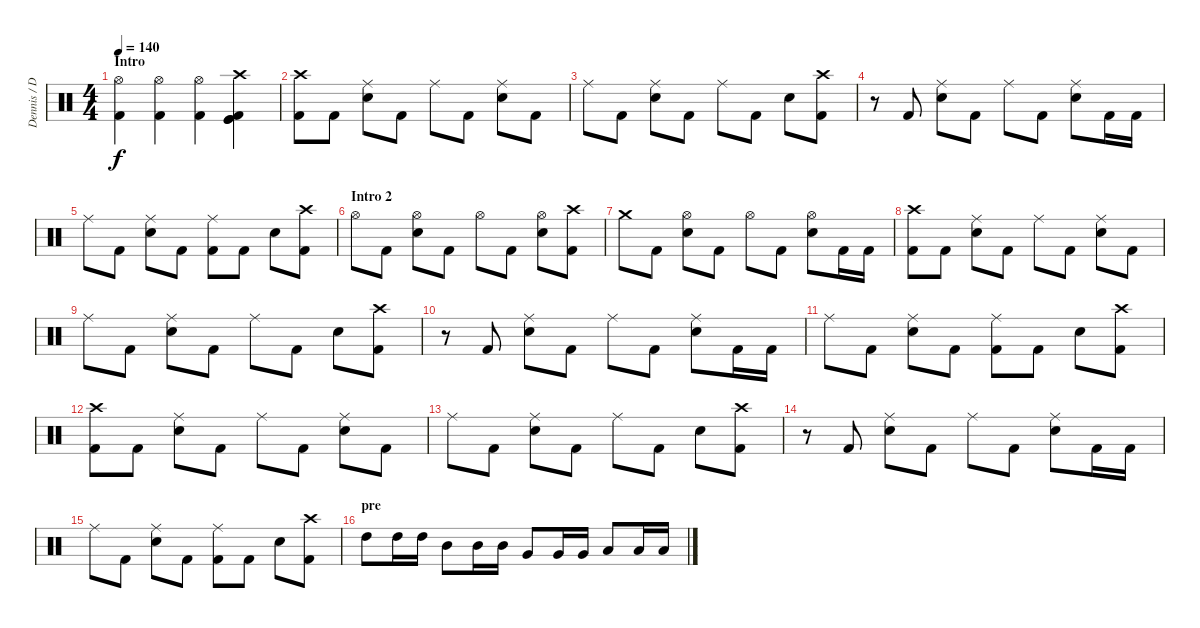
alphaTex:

\track ("Dennis / Drums" "Dennis / D") {instrument percussion}
\staff {score}
\articulation defaults
\ts (4 4)
\section ("" "Intro")
\tempo 140
\clef neutral
\ks c
("Hi-Hat (open)" "Kick (hit) 2").4{dy f} ("Hi-Hat (open)" "Kick (hit) 2").4 ("Hi-Hat (open)" "Kick (hit) 2").4 ("Kick (hit)" "Crash high (hit)" "Kick (hit) 2" "Kick (hit)").4 |
("Crash high (hit)" "Kick (hit) 2").8 "Kick (hit) 2".8 ("Ride (middle)" "Electric Snare (hit)").8 "Kick (hit) 2".8 "Ride (middle)".8 "Kick (hit) 2".8 ("Ride (middle)" "Electric Snare (hit)").8 "Kick (hit) 2".8 |
"Ride (middle)".8 "Kick (hit) 2".8 ("Ride (middle)" "Electric Snare (hit)").8 "Kick (hit) 2".8 "Ride (middle)".8 "Kick (hit) 2".8 "Electric Snare (hit)".8 ("Crash high (hit)" "Kick (hit) 2").8 |
r.8 "Kick (hit) 2".8 ("Ride (middle)" "Electric Snare (hit)").8 "Kick (hit) 2".8 "Ride (middle)".8 "Kick (hit) 2".8 ("Ride (middle)" "Electric Snare (hit)").8 "Kick (hit) 2".16 "Kick (hit) 2".16 |
"Ride (middle)".8 "Kick (hit) 2".8 ("Ride (middle)" "Electric Snare (hit)").8 "Kick (hit) 2".8 ("Ride (middle)" "Kick (hit) 2").8 "Kick (hit) 2".8 "Electric Snare (hit)".8 ("Crash high (hit)" "Kick (hit) 2").8 |
\section ("" "Intro 2")
"Hi-Hat (open)".8 "Kick (hit) 2".8 ("Hi-Hat (open)" "Electric Snare (hit)").8 "Kick (hit) 2".8 "Hi-Hat (open)".8 "Kick (hit) 2".8 ("Hi-Hat (open)" "Electric Snare (hit)").8 ("Crash high (hit)" "Kick (hit) 2").8 |
"Crash medium (hit)".8 "Kick (hit) 2".8 ("Hi-Hat (open)" "Electric Snare (hit)").8 "Kick (hit) 2".8 "Hi-Hat (open)".8 "Kick (hit) 2".8 ("Hi-Hat (open)" "Electric Snare (hit)").8 "Kick (hit) 2".16 "Kick (hit) 2".16 |
("Crash high (hit)" "Kick (hit) 2").8 "Kick (hit) 2".8 ("Ride (middle)" "Electric Snare (hit)").8 "Kick (hit) 2".8 "Ride (middle)".8 "Kick (hit) 2".8 ("Ride (middle)" "Electric Snare (hit)").8 "Kick (hit) 2".8 |
"Ride (middle)".8 "Kick (hit) 2".8 ("Ride (middle)" "Electric Snare (hit)").8 "Kick (hit) 2".8 "Ride (middle)".8 "Kick (hit) 2".8 "Electric Snare (hit)".8 ("Crash high (hit)" "Kick (hit) 2").8 |
r.8 "Kick (hit) 2".8 ("Ride (middle)" "Electric Snare (hit)").8 "Kick (hit) 2".8 "Ride (middle)".8 "Kick (hit) 2".8 ("Ride (middle)" "Electric Snare (hit)").8 "Kick (hit) 2".16 "Kick (hit) 2".16 |
"Ride (middle)".8 "Kick (hit) 2".8 ("Ride (middle)" "Electric Snare (hit)").8 "Kick (hit) 2".8 ("Ride (middle)" "Kick (hit) 2").8 "Kick (hit) 2".8 "Electric Snare (hit)".8 ("Crash high (hit)" "Kick (hit) 2").8 |
("Crash high (hit)" "Kick (hit) 2").8 "Kick (hit) 2".8 ("Ride (middle)" "Electric Snare (hit)").8 "Kick (hit) 2".8 "Ride (middle)".8 "Kick (hit) 2".8 ("Ride (middle)" "Electric Snare (hit)").8 "Kick (hit) 2".8 |
"Ride (middle)".8 "Kick (hit) 2".8 ("Ride (middle)" "Electric Snare (hit)").8 "Kick (hit) 2".8 "Ride (middle)".8 "Kick (hit) 2".8 "Electric Snare (hit)".8 ("Crash high (hit)" "Kick (hit) 2").8 |
r.8 "Kick (hit) 2".8 ("Ride (middle)" "Electric Snare (hit)").8 "Kick (hit) 2".8 "Ride (middle)".8 "Kick (hit) 2".8 ("Ride (middle)" "Electric Snare (hit)").8 "Kick (hit) 2".16 "Kick (hit) 2".16 |
"Ride (middle)".8 "Kick (hit) 2".8 ("Ride (middle)" "Electric Snare (hit)").8 "Kick (hit) 2".8 ("Ride (middle)" "Kick (hit) 2").8 "Kick (hit) 2".8 "Electric Snare (hit)".8 ("Crash high (hit)" "Kick (hit) 2").8 |
\section ("" "pre")
"High Tom (hit)".8 "High Tom (hit)".16 "High Tom (hit)".16 "Mid Tom (hit)".8 "Mid Tom (hit)".16 "Mid Tom (hit)".16 "Very Low Tom (hit)".8 "Very Low Tom (hit)".16 "Very Low Tom (hit)".16 "Low Tom (hit)".8 "Low Tom (hit)".16 "Low Tom (hit)".16
